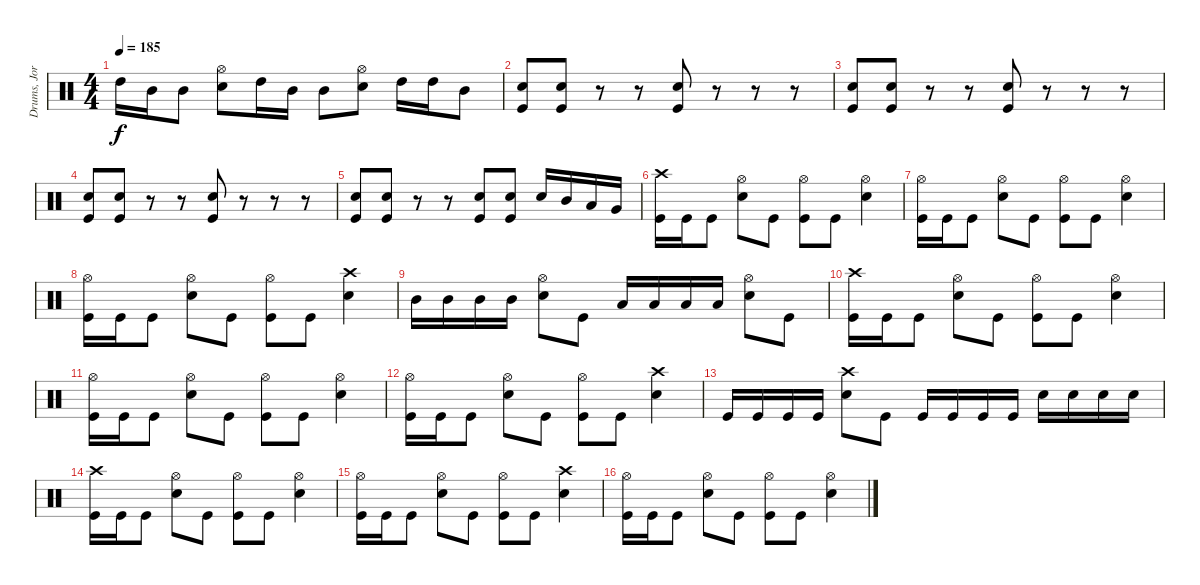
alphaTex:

\track ("Drums, Jorye Sáez" "Drums, Jor") {instrument percussion}
\staff {score}
\articulation defaults
\ts (4 4)
\tempo 185
\clef neutral
\ks c "High Tom (hit)".16{dy f} "Mid Tom (hit)".16 "Mid Tom (hit)".8
("Electric Snare (hit)" "Hi-Hat (open)").8 "High Tom (hit)".16 "Mid Tom (hit)".16 "Mid Tom (hit)".8 ("Electric Snare (hit)" "Hi-Hat (open)").8 "High Tom (hit)".16 "High Tom (hit)".16 "Mid Tom (hit)".8 |
("Kick (hit)" "Electric Snare (hit)").8 ("Kick (hit)" "Electric Snare (hit)").8 r.8 r.8 ("Kick (hit)" "Electric Snare (hit)").8 r.8 r.8 r.8 |
("Kick (hit)" "Electric Snare (hit)").8 ("Kick (hit)" "Electric Snare (hit)").8 r.8 r.8 ("Kick (hit)" "Electric Snare (hit)").8 r.8 r.8 r.8 |
("Kick (hit)" "Electric Snare (hit)").8 ("Kick (hit)" "Electric Snare (hit)").8 r.8 r.8 ("Kick (hit)" "Electric Snare (hit)").8 r.8 r.8 r.8 |
("Kick (hit)" "Electric Snare (hit)").8 ("Kick (hit)" "Electric Snare (hit)").8 r.8 r.8 ("Electric Snare (hit)" "Kick (hit)").8 ("Electric Snare (hit)" "Kick (hit)").8 "Electric Snare (hit)".16 "Mid Tom (hit)".16 "Low Tom (hit)".16 "Very Low Tom (hit)".16 |
("Crash high (hit)" "Kick (hit)").16 "Kick (hit)".16 "Kick (hit)".8 ("Hi-Hat (open)" "Electric Snare (hit)").8 "Kick (hit)".8 ("Hi-Hat (open)" "Kick (hit)").8 "Kick (hit)".8 ("Hi-Hat (open)" "Electric Snare (hit)").4 |
("Hi-Hat (open)" "Kick (hit)").16 "Kick (hit)".16 "Kick (hit)".8 ("Hi-Hat (open)" "Electric Snare (hit)").8 "Kick (hit)".8 ("Hi-Hat (open)" "Kick (hit)").8 "Kick (hit)".8 ("Hi-Hat (open)" "Electric Snare (hit)").4 |
("Hi-Hat (open)" "Kick (hit)").16 "Kick (hit)".16 "Kick (hit)".8 ("Hi-Hat (open)" "Electric Snare (hit)").8 "Kick (hit)".8 ("Hi-Hat (open)" "Kick (hit)").8 "Kick (hit)".8 ("Crash high (hit)" "Electric Snare (hit)").4 |
"Mid Tom (hit)".16 "Mid Tom (hit)".16 "Mid Tom (hit)".16 "Mid Tom (hit)".16 ("Hi-Hat (open)" "Electric Snare (hit)").8 "Kick (hit)".8 "Low Tom (hit)".16 "Low Tom (hit)".16 "Low Tom (hit)".16 "Low Tom (hit)".16 ("Hi-Hat (open)" "Electric Snare (hit)").8 "Kick (hit)".8 |
("Crash high (hit)" "Kick (hit)").16 "Kick (hit)".16 "Kick (hit)".8 ("Hi-Hat (open)" "Electric Snare (hit)").8 "Kick (hit)".8 ("Hi-Hat (open)" "Kick (hit)").8 "Kick (hit)".8 ("Hi-Hat (open)" "Electric Snare (hit)").4 |
("Hi-Hat (open)" "Kick (hit)").16 "Kick (hit)".16 "Kick (hit)".8 ("Hi-Hat (open)" "Electric Snare (hit)").8 "Kick (hit)".8 ("Hi-Hat (open)" "Kick (hit)").8 "Kick (hit)".8 ("Hi-Hat (open)" "Electric Snare (hit)").4 |
("Hi-Hat (open)" "Kick (hit)").16 "Kick (hit)".16 "Kick (hit)".8 ("Hi-Hat (open)" "Electric Snare (hit)").8 "Kick (hit)".8 ("Hi-Hat (open)" "Kick (hit)").8 "Kick (hit)".8 ("Crash high (hit)" "Electric Snare (hit)").4 |
"Kick (hit)".16 "Kick (hit)".16 "Kick (hit)".16 "Kick (hit)".16 ("Crash high (hit)" "Electric Snare (hit)").8 "Kick (hit)".8 "Kick (hit)".16 "Kick (hit)".16 "Kick (hit)".16 "Kick (hit)".16 "Electric Snare (hit)".16 "Electric Snare (hit)".16 "Electric Snare (hit)".16 "Electric Snare (hit)".16 |
("Crash high (hit)" "Kick (hit)").16 "Kick (hit)".16 "Kick (hit)".8 ("Hi-Hat (open)" "Electric Snare (hit)").8 "Kick (hit)".8 ("Hi-Hat (open)" "Kick (hit)").8 "Kick (hit)".8 ("Hi-Hat (open)" "Electric Snare (hit)").4 |
("Hi-Hat (open)" "Kick (hit)").16 "Kick (hit)".16 "Kick (hit)".8 ("Hi-Hat (open)" "Electric Snare (hit)").8 "Kick (hit)".8 ("Hi-Hat (open)" "Kick (hit)").8 "Kick (hit)".8 ("Crash high (hit)" "Electric Snare (hit)").4 |
("Hi-Hat (open)" "Kick (hit)").16 "Kick (hit)".16 "Kick (hit)".8 ("Hi-Hat (open)" "Electric Snare (hit)").8 "Kick (hit)".8 ("Hi-Hat (open)" "Kick (hit)").8 "Kick (hit)".8 ("Hi-Hat (open)" "Electric Snare (hit)").4
